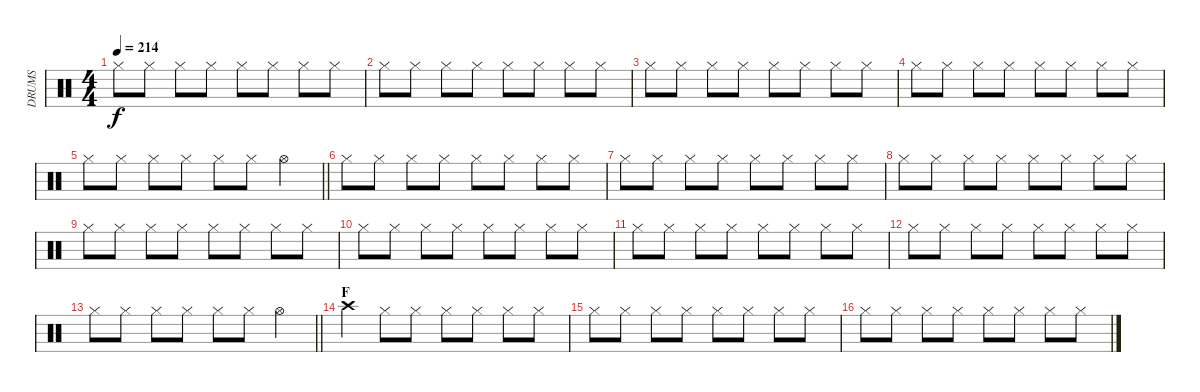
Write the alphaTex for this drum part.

\track ("DRUMS" "DRUMS") {instrument percussion}
\staff {score}
\articulation defaults
\ts (4 4)
\tempo 214
\clef neutral
\ks c "Hi-Hat (closed)".8{dy f} "Hi-Hat (closed)".8 "Hi-Hat (closed)".8 "Hi-Hat (closed)".8 "Hi-Hat (closed)".8 "Hi-Hat (closed)".8 "Hi-Hat (closed)".8 "Hi-Hat (closed)".8
|
"Hi-Hat (closed)".8 "Hi-Hat (closed)".8 "Hi-Hat (closed)".8 "Hi-Hat (closed)".8 "Hi-Hat (closed)".8 "Hi-Hat (closed)".8 "Hi-Hat (closed)".8 "Hi-Hat (closed)".8 |
"Hi-Hat (closed)".8 "Hi-Hat (closed)".8 "Hi-Hat (closed)".8 "Hi-Hat (closed)".8 "Hi-Hat (closed)".8 "Hi-Hat (closed)".8 "Hi-Hat (closed)".8 "Hi-Hat (closed)".8 |
"Hi-Hat (closed)".8 "Hi-Hat (closed)".8 "Hi-Hat (closed)".8 "Hi-Hat (closed)".8 "Hi-Hat (closed)".8 "Hi-Hat (closed)".8 "Hi-Hat (closed)".8 "Hi-Hat (closed)".8 |
\barLineRight lightlight "Hi-Hat (closed)".8 "Hi-Hat (closed)".8 "Hi-Hat (closed)".8 "Hi-Hat (closed)".8 "Hi-Hat (closed)".8 "Hi-Hat (closed)".8 "Hi-Hat (open)".4
|
"Hi-Hat (closed)".8 "Hi-Hat (closed)".8 "Hi-Hat (closed)".8 "Hi-Hat (closed)".8 "Hi-Hat (closed)".8 "Hi-Hat (closed)".8 "Hi-Hat (closed)".8 "Hi-Hat (closed)".8 |
"Hi-Hat (closed)".8 "Hi-Hat (closed)".8 "Hi-Hat (closed)".8 "Hi-Hat (closed)".8 "Hi-Hat (closed)".8 "Hi-Hat (closed)".8 "Hi-Hat (closed)".8 "Hi-Hat (closed)".8 |
"Hi-Hat (closed)".8 "Hi-Hat (closed)".8 "Hi-Hat (closed)".8 "Hi-Hat (closed)".8 "Hi-Hat (closed)".8 "Hi-Hat (closed)".8 "Hi-Hat (closed)".8 "Hi-Hat (closed)".8 |
"Hi-Hat (closed)".8 "Hi-Hat (closed)".8 "Hi-Hat (closed)".8 "Hi-Hat (closed)".8 "Hi-Hat (closed)".8 "Hi-Hat (closed)".8 "Hi-Hat (closed)".8 "Hi-Hat (closed)".8 |
"Hi-Hat (closed)".8 "Hi-Hat (closed)".8 "Hi-Hat (closed)".8 "Hi-Hat (closed)".8 "Hi-Hat (closed)".8 "Hi-Hat (closed)".8 "Hi-Hat (closed)".8 "Hi-Hat (closed)".8 |
"Hi-Hat (closed)".8 "Hi-Hat (closed)".8 "Hi-Hat (closed)".8 "Hi-Hat (closed)".8 "Hi-Hat (closed)".8 "Hi-Hat (closed)".8 "Hi-Hat (closed)".8 "Hi-Hat (closed)".8 |
"Hi-Hat (closed)".8 "Hi-Hat (closed)".8 "Hi-Hat (closed)".8 "Hi-Hat (closed)".8 "Hi-Hat (closed)".8 "Hi-Hat (closed)".8 "Hi-Hat (closed)".8 "Hi-Hat (closed)".8 |
\barLineRight lightlight "Hi-Hat (closed)".8 "Hi-Hat (closed)".8 "Hi-Hat (closed)".8 "Hi-Hat (closed)".8 "Hi-Hat (closed)".8 "Hi-Hat (closed)".8 "Hi-Hat (open)".4
|
\section ("" "F")
"Crash high (hit)".4 "Hi-Hat (closed)".8 "Hi-Hat (closed)".8 "Hi-Hat (closed)".8 "Hi-Hat (closed)".8 "Hi-Hat (closed)".8 "Hi-Hat (closed)".8 |
"Hi-Hat (closed)".8 "Hi-Hat (closed)".8 "Hi-Hat (closed)".8 "Hi-Hat (closed)".8 "Hi-Hat (closed)".8 "Hi-Hat (closed)".8 "Hi-Hat (closed)".8 "Hi-Hat (closed)".8 |
"Hi-Hat (closed)".8 "Hi-Hat (closed)".8 "Hi-Hat (closed)".8 "Hi-Hat (closed)".8 "Hi-Hat (closed)".8 "Hi-Hat (closed)".8 "Hi-Hat (closed)".8 "Hi-Hat (closed)".8
